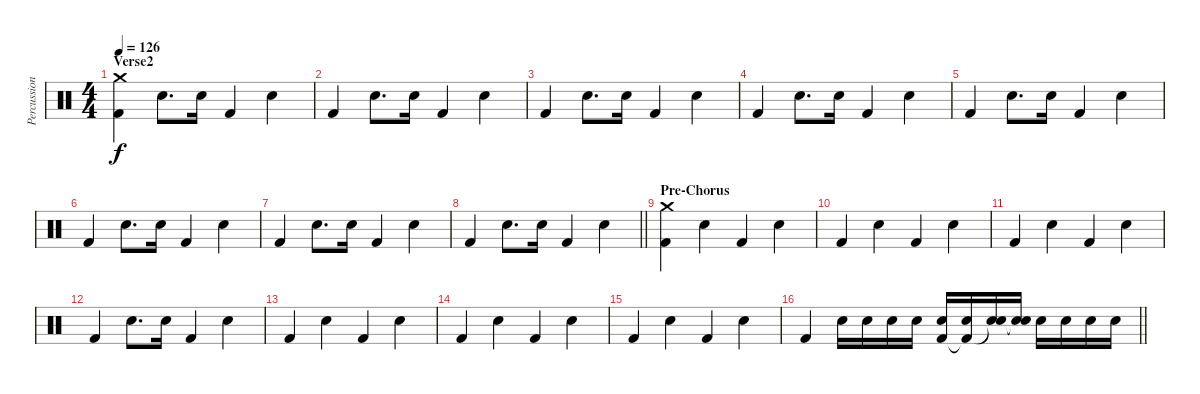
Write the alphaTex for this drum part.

\track ("Percussion" "Percussion") {instrument percussion}
\staff {score}
\articulation defaults
\ts (4 4)
\section ("" "Verse2")
\tempo 126
\clef neutral
\ks c
("Crash medium (hit)" "Kick (hit) 2").4{dy f} "Electric Snare (hit)".8{d} "Electric Snare (hit)".16 "Kick (hit) 2".4 "Electric Snare (hit)".4 |
"Kick (hit) 2".4 "Electric Snare (hit)".8{d} "Electric Snare (hit)".16 "Kick (hit) 2".4 "Electric Snare (hit)".4 |
"Kick (hit) 2".4 "Electric Snare (hit)".8{d} "Electric Snare (hit)".16 "Kick (hit) 2".4 "Electric Snare (hit)".4 |
"Kick (hit) 2".4 "Electric Snare (hit)".8{d} "Electric Snare (hit)".16 "Kick (hit) 2".4 "Electric Snare (hit)".4 |
"Kick (hit) 2".4 "Electric Snare (hit)".8{d} "Electric Snare (hit)".16 "Kick (hit) 2".4 "Electric Snare (hit)".4 |
"Kick (hit) 2".4 "Electric Snare (hit)".8{d} "Electric Snare (hit)".16 "Kick (hit) 2".4 "Electric Snare (hit)".4 |
"Kick (hit) 2".4 "Electric Snare (hit)".8{d} "Electric Snare (hit)".16 "Kick (hit) 2".4 "Electric Snare (hit)".4 |
\barLineRight lightlight "Kick (hit) 2".4 "Electric Snare (hit)".8{d} "Electric Snare (hit)".16 "Kick (hit) 2".4 "Electric Snare (hit)".4
|
\section ("" "Pre-Chorus")
("Crash medium (hit)" "Kick (hit) 2").4 "Electric Snare (hit)".4 "Kick (hit) 2".4 "Electric Snare (hit)".4 |
"Kick (hit) 2".4 "Electric Snare (hit)".4 "Kick (hit) 2".4 "Electric Snare (hit)".4 |
"Kick (hit) 2".4 "Electric Snare (hit)".4 "Kick (hit) 2".4 "Electric Snare (hit)".4 |
"Kick (hit) 2".4 "Electric Snare (hit)".8{d} "Electric Snare (hit)".16 "Kick (hit) 2".4 "Electric Snare (hit)".4 |
"Kick (hit) 2".4 "Electric Snare (hit)".4 "Kick (hit) 2".4 "Electric Snare (hit)".4 |
"Kick (hit) 2".4 "Electric Snare (hit)".4 "Kick (hit) 2".4 "Electric Snare (hit)".4 |
"Kick (hit) 2".4 "Electric Snare (hit)".4 "Kick (hit) 2".4 "Electric Snare (hit)".4 |
\barLineRight lightlight "Kick (hit) 2".4 "Electric Snare (hit)".16 "Electric Snare (hit)".16 "Electric Snare (hit)".16 "Electric Snare (hit)".16
("Electric Snare (hit)" "Kick (hit) 2").16 ("Electric Snare (hit)" "Kick (hit) 2"{t}).16 ("Electric Snare (hit)" "Snare (hit)"{t}).16 ("Electric Snare (hit)" "Snare (hit)"{t}).16 "Electric Snare (hit)".16 "Electric Snare (hit)".16 "Electric Snare (hit)".16 "Electric Snare (hit)".16
